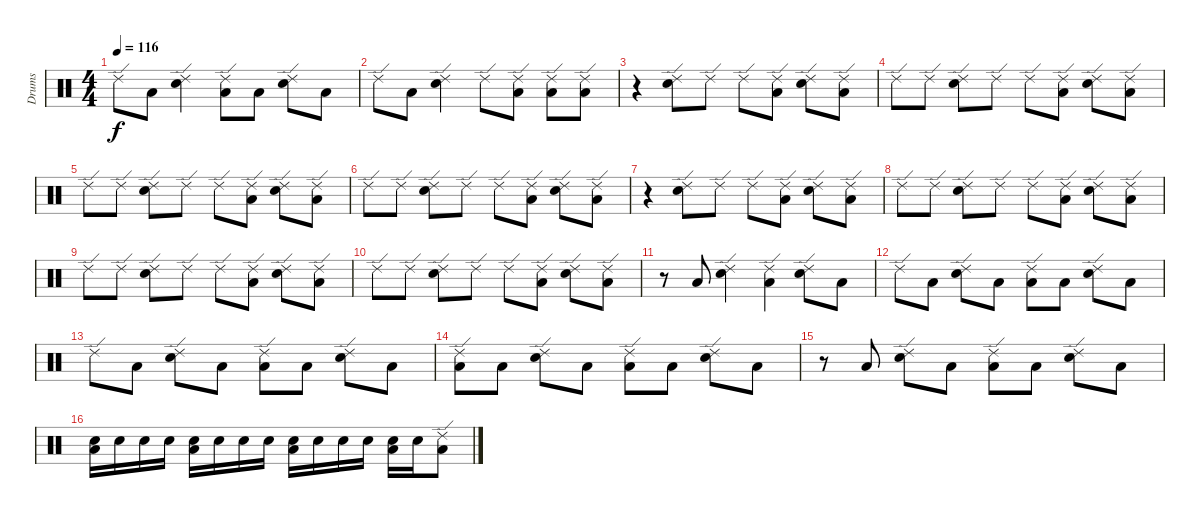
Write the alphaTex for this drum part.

\track ("Drums" "Drums") {instrument percussion}
\staff {score}
\articulation defaults
\ts (4 4)
\tempo 116
\clef neutral
\ks c "Ride (edge) 2".8{dy f} "Low Floor Tom (hit)".8
("Snare (hit) 2" "Ride (edge) 2").4 ("Low Floor Tom (hit)" "Ride (edge) 2").8 "Low Floor Tom (hit)".8 ("Snare (hit) 2" "Ride (edge) 2").8 "Low Floor Tom (hit)".8 |
"Ride (edge) 2".8 "Low Floor Tom (hit)".8 ("Snare (hit) 2" "Ride (edge) 2").4 "Ride (edge) 2".8 ("Low Floor Tom (hit)" "Ride (edge) 2").8 ("Low Floor Tom (hit)" "Ride (edge) 2").8 ("Low Floor Tom (hit)" "Ride (edge) 2").8 |
r.4 ("Snare (hit) 2" "Ride (edge) 2").8 "Ride (edge) 2".8 "Ride (edge) 2".8 ("Low Floor Tom (hit)" "Ride (edge) 2").8 ("Snare (hit) 2" "Ride (edge) 2").8 ("Low Floor Tom (hit)" "Ride (edge) 2").8 |
"Ride (edge) 2".8 "Ride (edge) 2".8 ("Snare (hit) 2" "Ride (edge) 2").8 "Ride (edge) 2".8 "Ride (edge) 2".8 ("Low Floor Tom (hit)" "Ride (edge) 2").8 ("Snare (hit) 2" "Ride (edge) 2").8 ("Low Floor Tom (hit)" "Ride (edge) 2").8 |
"Ride (edge) 2".8 "Ride (edge) 2".8 ("Snare (hit) 2" "Ride (edge) 2").8 "Ride (edge) 2".8 "Ride (edge) 2".8 ("Low Floor Tom (hit)" "Ride (edge) 2").8 ("Snare (hit) 2" "Ride (edge) 2").8 ("Low Floor Tom (hit)" "Ride (edge) 2").8 |
"Ride (edge) 2".8 "Ride (edge) 2".8 ("Snare (hit) 2" "Ride (edge) 2").8 "Ride (edge) 2".8 "Ride (edge) 2".8 ("Low Floor Tom (hit)" "Ride (edge) 2").8 ("Snare (hit) 2" "Ride (edge) 2").8 ("Low Floor Tom (hit)" "Ride (edge) 2").8 |
r.4 ("Snare (hit) 2" "Ride (edge) 2").8 "Ride (edge) 2".8 "Ride (edge) 2".8 ("Low Floor Tom (hit)" "Ride (edge) 2").8 ("Snare (hit) 2" "Ride (edge) 2").8 ("Low Floor Tom (hit)" "Ride (edge) 2").8 |
"Ride (edge) 2".8 "Ride (edge) 2".8 ("Snare (hit) 2" "Ride (edge) 2").8 "Ride (edge) 2".8 "Ride (edge) 2".8 ("Low Floor Tom (hit)" "Ride (edge) 2").8 ("Snare (hit) 2" "Ride (edge) 2").8 ("Low Floor Tom (hit)" "Ride (edge) 2").8 |
"Ride (edge) 2".8 "Ride (edge) 2".8 ("Snare (hit) 2" "Ride (edge) 2").8 "Ride (edge) 2".8 "Ride (edge) 2".8 ("Low Floor Tom (hit)" "Ride (edge) 2").8 ("Snare (hit) 2" "Ride (edge) 2").8 ("Low Floor Tom (hit)" "Ride (edge) 2").8 |
"Ride (edge) 2".8 "Ride (edge) 2".8 ("Snare (hit) 2" "Ride (edge) 2").8 "Ride (edge) 2".8 "Ride (edge) 2".8 ("Low Floor Tom (hit)" "Ride (edge) 2").8 ("Snare (hit) 2" "Ride (edge) 2").8 ("Low Floor Tom (hit)" "Ride (edge) 2").8 |
r.8 "Low Floor Tom (hit)".8 ("Snare (hit) 2" "Ride (edge) 2").4 ("Low Floor Tom (hit)" "Ride (edge) 2").4 ("Snare (hit) 2" "Ride (edge) 2").8 "Low Floor Tom (hit)".8 |
"Ride (edge) 2".8 "Low Floor Tom (hit)".8 ("Snare (hit) 2" "Ride (edge) 2").8 "Low Floor Tom (hit)".8 ("Low Floor Tom (hit)" "Ride (edge) 2").8 "Low Floor Tom (hit)".8 ("Snare (hit) 2" "Ride (edge) 2").8 "Low Floor Tom (hit)".8 |
"Ride (edge) 2".8 "Low Floor Tom (hit)".8 ("Snare (hit) 2" "Ride (edge) 2").8 "Low Floor Tom (hit)".8 ("Low Floor Tom (hit)" "Ride (edge) 2").8 "Low Floor Tom (hit)".8 ("Snare (hit) 2" "Ride (edge) 2").8 "Low Floor Tom (hit)".8 |
("Low Floor Tom (hit)" "Ride (edge) 2").8 "Low Floor Tom (hit)".8 ("Snare (hit) 2" "Ride (edge) 2").8 "Low Floor Tom (hit)".8 ("Low Floor Tom (hit)" "Ride (edge) 2").8 "Low Floor Tom (hit)".8 ("Snare (hit) 2" "Ride (edge) 2").8 "Low Floor Tom (hit)".8 |
r.8 "Low Floor Tom (hit)".8 ("Snare (hit) 2" "Ride (edge) 2").8 "Low Floor Tom (hit)".8 ("Low Floor Tom (hit)" "Ride (edge) 2").8 "Low Floor Tom (hit)".8 ("Snare (hit) 2" "Ride (edge) 2").8 "Low Floor Tom (hit)".8 |
("Snare (hit) 2" "Low Floor Tom (hit)").16 "Snare (hit) 2".16 "Snare (hit) 2".16 "Snare (hit) 2".16 ("Snare (hit) 2" "Low Floor Tom (hit)").16 "Snare (hit) 2".16 "Snare (hit) 2".16 "Snare (hit) 2".16 ("Snare (hit) 2" "Low Floor Tom (hit)").16 "Snare (hit) 2".16 "Snare (hit) 2".16 "Snare (hit) 2".16 ("Snare (hit) 2" "Low Floor Tom (hit)").16 "Snare (hit) 2".16 ("Low Floor Tom (hit)" "Ride (edge) 2").8
